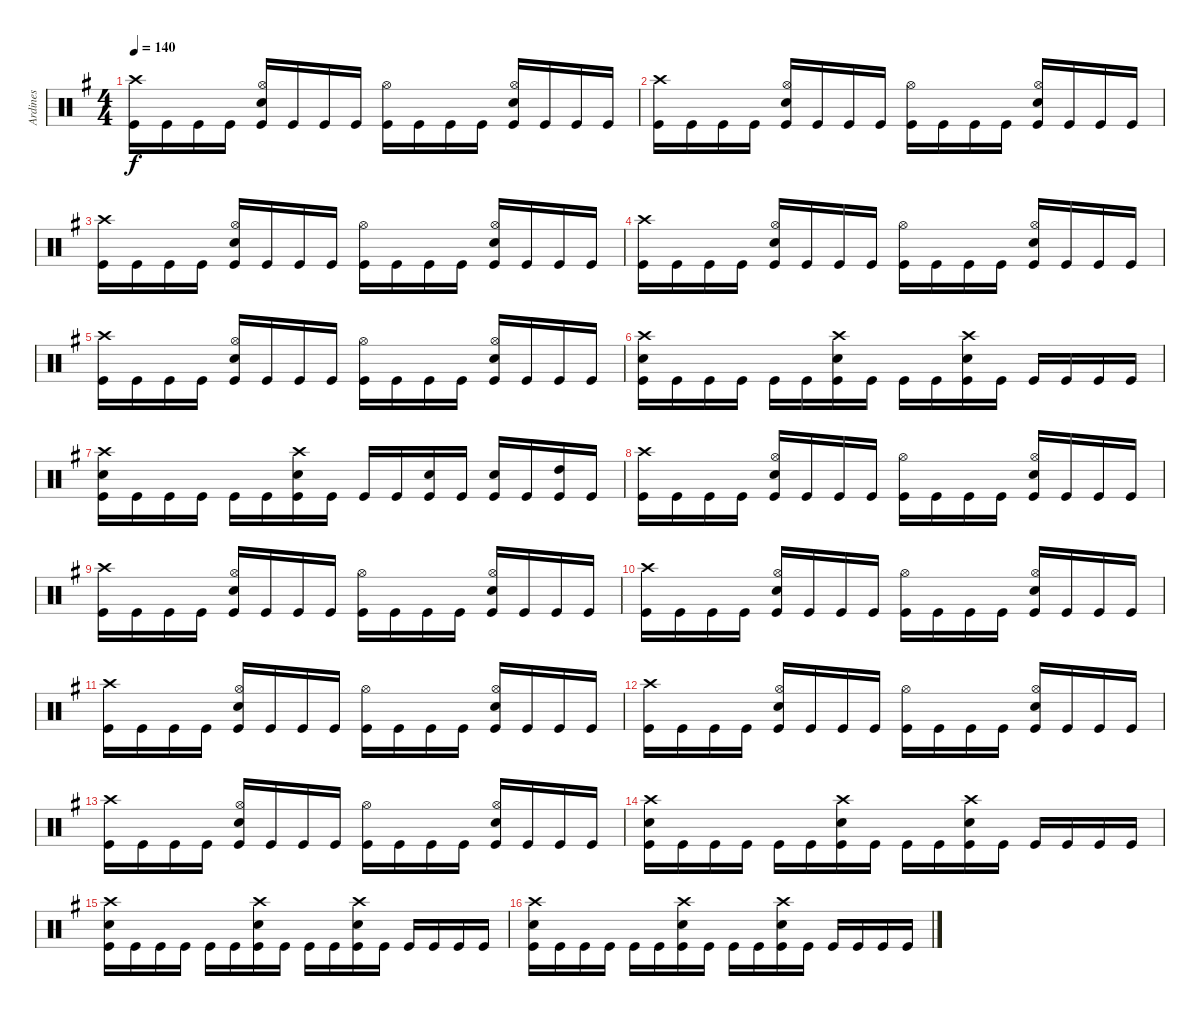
\track ("Ardines" "Ardines") {instrument percussion}
\staff {score}
\articulation defaults
\ts (4 4)
\tempo 140
\clef neutral
\ks g
("Crash high (hit)" "Kick (hit)").16{dy f} "Kick (hit)".16 "Kick (hit)".16 "Kick (hit)".16 ("Hi-Hat (open)" "Electric Snare (hit)" "Kick (hit)").16 "Kick (hit)".16 "Kick (hit)".16 "Kick (hit)".16 ("Hi-Hat (open)" "Kick (hit)").16 "Kick (hit)".16 "Kick (hit)".16 "Kick (hit)".16 ("Hi-Hat (open)" "Electric Snare (hit)" "Kick (hit)").16 "Kick (hit)".16 "Kick (hit)".16 "Kick (hit)".16 |
("Crash high (hit)" "Kick (hit)").16 "Kick (hit)".16 "Kick (hit)".16 "Kick (hit)".16 ("Hi-Hat (open)" "Electric Snare (hit)" "Kick (hit)").16 "Kick (hit)".16 "Kick (hit)".16 "Kick (hit)".16 ("Hi-Hat (open)" "Kick (hit)").16 "Kick (hit)".16 "Kick (hit)".16 "Kick (hit)".16 ("Hi-Hat (open)" "Electric Snare (hit)" "Kick (hit)").16 "Kick (hit)".16 "Kick (hit)".16 "Kick (hit)".16 |
("Crash high (hit)" "Kick (hit)").16 "Kick (hit)".16 "Kick (hit)".16 "Kick (hit)".16 ("Hi-Hat (open)" "Electric Snare (hit)" "Kick (hit)").16 "Kick (hit)".16 "Kick (hit)".16 "Kick (hit)".16 ("Hi-Hat (open)" "Kick (hit)").16 "Kick (hit)".16 "Kick (hit)".16 "Kick (hit)".16 ("Hi-Hat (open)" "Electric Snare (hit)" "Kick (hit)").16 "Kick (hit)".16 "Kick (hit)".16 "Kick (hit)".16 |
("Crash high (hit)" "Kick (hit)").16 "Kick (hit)".16 "Kick (hit)".16 "Kick (hit)".16 ("Hi-Hat (open)" "Electric Snare (hit)" "Kick (hit)").16 "Kick (hit)".16 "Kick (hit)".16 "Kick (hit)".16 ("Hi-Hat (open)" "Kick (hit)").16 "Kick (hit)".16 "Kick (hit)".16 "Kick (hit)".16 ("Hi-Hat (open)" "Electric Snare (hit)" "Kick (hit)").16 "Kick (hit)".16 "Kick (hit)".16 "Kick (hit)".16 |
("Crash high (hit)" "Kick (hit)").16 "Kick (hit)".16 "Kick (hit)".16 "Kick (hit)".16 ("Hi-Hat (open)" "Electric Snare (hit)" "Kick (hit)").16 "Kick (hit)".16 "Kick (hit)".16 "Kick (hit)".16 ("Hi-Hat (open)" "Kick (hit)").16 "Kick (hit)".16 "Kick (hit)".16 "Kick (hit)".16 ("Hi-Hat (open)" "Electric Snare (hit)" "Kick (hit)").16 "Kick (hit)".16 "Kick (hit)".16 "Kick (hit)".16 |
("Crash high (hit)" "Electric Snare (hit)" "Kick (hit)").16 "Kick (hit)".16 "Kick (hit)".16 "Kick (hit)".16 "Kick (hit)".16 "Kick (hit)".16 ("Crash high (hit)" "Electric Snare (hit)" "Kick (hit)").16 "Kick (hit)".16 "Kick (hit)".16 "Kick (hit)".16 ("Crash high (hit)" "Electric Snare (hit)" "Kick (hit)").16 "Kick (hit)".16 "Kick (hit)".16 "Kick (hit)".16 "Kick (hit)".16 "Kick (hit)".16 |
("Crash high (hit)" "Electric Snare (hit)" "Kick (hit)").16 "Kick (hit)".16 "Kick (hit)".16 "Kick (hit)".16 "Kick (hit)".16 "Kick (hit)".16 ("Crash high (hit)" "Electric Snare (hit)" "Kick (hit)").16 "Kick (hit)".16 "Kick (hit)".16 "Kick (hit)".16 ("Electric Snare (hit)" "Kick (hit)").16 "Kick (hit)".16 ("Electric Snare (hit)" "Kick (hit)").16 "Kick (hit)".16 ("High Tom (hit)" "Kick (hit)").16 "Kick (hit)".16 |
("Crash high (hit)" "Kick (hit)").16 "Kick (hit)".16 "Kick (hit)".16 "Kick (hit)".16 ("Hi-Hat (open)" "Electric Snare (hit)" "Kick (hit)").16 "Kick (hit)".16 "Kick (hit)".16 "Kick (hit)".16 ("Hi-Hat (open)" "Kick (hit)").16 "Kick (hit)".16 "Kick (hit)".16 "Kick (hit)".16 ("Hi-Hat (open)" "Electric Snare (hit)" "Kick (hit)").16 "Kick (hit)".16 "Kick (hit)".16 "Kick (hit)".16 |
("Crash high (hit)" "Kick (hit)").16 "Kick (hit)".16 "Kick (hit)".16 "Kick (hit)".16 ("Hi-Hat (open)" "Electric Snare (hit)" "Kick (hit)").16 "Kick (hit)".16 "Kick (hit)".16 "Kick (hit)".16 ("Hi-Hat (open)" "Kick (hit)").16 "Kick (hit)".16 "Kick (hit)".16 "Kick (hit)".16 ("Hi-Hat (open)" "Electric Snare (hit)" "Kick (hit)").16 "Kick (hit)".16 "Kick (hit)".16 "Kick (hit)".16 |
("Crash high (hit)" "Kick (hit)").16 "Kick (hit)".16 "Kick (hit)".16 "Kick (hit)".16 ("Hi-Hat (open)" "Electric Snare (hit)" "Kick (hit)").16 "Kick (hit)".16 "Kick (hit)".16 "Kick (hit)".16 ("Hi-Hat (open)" "Kick (hit)").16 "Kick (hit)".16 "Kick (hit)".16 "Kick (hit)".16 ("Hi-Hat (open)" "Electric Snare (hit)" "Kick (hit)").16 "Kick (hit)".16 "Kick (hit)".16 "Kick (hit)".16 |
("Crash high (hit)" "Kick (hit)").16 "Kick (hit)".16 "Kick (hit)".16 "Kick (hit)".16 ("Hi-Hat (open)" "Electric Snare (hit)" "Kick (hit)").16 "Kick (hit)".16 "Kick (hit)".16 "Kick (hit)".16 ("Hi-Hat (open)" "Kick (hit)").16 "Kick (hit)".16 "Kick (hit)".16 "Kick (hit)".16 ("Hi-Hat (open)" "Electric Snare (hit)" "Kick (hit)").16 "Kick (hit)".16 "Kick (hit)".16 "Kick (hit)".16 |
("Crash high (hit)" "Kick (hit)").16 "Kick (hit)".16 "Kick (hit)".16 "Kick (hit)".16 ("Hi-Hat (open)" "Electric Snare (hit)" "Kick (hit)").16 "Kick (hit)".16 "Kick (hit)".16 "Kick (hit)".16 ("Hi-Hat (open)" "Kick (hit)").16 "Kick (hit)".16 "Kick (hit)".16 "Kick (hit)".16 ("Hi-Hat (open)" "Electric Snare (hit)" "Kick (hit)").16 "Kick (hit)".16 "Kick (hit)".16 "Kick (hit)".16 |
("Crash high (hit)" "Kick (hit)").16 "Kick (hit)".16 "Kick (hit)".16 "Kick (hit)".16 ("Hi-Hat (open)" "Electric Snare (hit)" "Kick (hit)").16 "Kick (hit)".16 "Kick (hit)".16 "Kick (hit)".16 ("Hi-Hat (open)" "Kick (hit)").16 "Kick (hit)".16 "Kick (hit)".16 "Kick (hit)".16 ("Hi-Hat (open)" "Electric Snare (hit)" "Kick (hit)").16 "Kick (hit)".16 "Kick (hit)".16 "Kick (hit)".16 |
("Crash high (hit)" "Electric Snare (hit)" "Kick (hit)").16 "Kick (hit)".16 "Kick (hit)".16 "Kick (hit)".16 "Kick (hit)".16 "Kick (hit)".16 ("Crash high (hit)" "Electric Snare (hit)" "Kick (hit)").16 "Kick (hit)".16 "Kick (hit)".16 "Kick (hit)".16 ("Crash high (hit)" "Electric Snare (hit)" "Kick (hit)").16 "Kick (hit)".16 "Kick (hit)".16 "Kick (hit)".16 "Kick (hit)".16 "Kick (hit)".16 |
("Crash high (hit)" "Electric Snare (hit)" "Kick (hit)").16 "Kick (hit)".16 "Kick (hit)".16 "Kick (hit)".16 "Kick (hit)".16 "Kick (hit)".16 ("Crash high (hit)" "Electric Snare (hit)" "Kick (hit)").16 "Kick (hit)".16 "Kick (hit)".16 "Kick (hit)".16 ("Crash high (hit)" "Electric Snare (hit)" "Kick (hit)").16 "Kick (hit)".16 "Kick (hit)".16 "Kick (hit)".16 "Kick (hit)".16 "Kick (hit)".16 |
("Crash high (hit)" "Electric Snare (hit)" "Kick (hit)").16 "Kick (hit)".16 "Kick (hit)".16 "Kick (hit)".16 "Kick (hit)".16 "Kick (hit)".16 ("Crash high (hit)" "Electric Snare (hit)" "Kick (hit)").16 "Kick (hit)".16 "Kick (hit)".16 "Kick (hit)".16 ("Crash high (hit)" "Electric Snare (hit)" "Kick (hit)").16 "Kick (hit)".16 "Kick (hit)".16 "Kick (hit)".16 "Kick (hit)".16 "Kick (hit)".16
